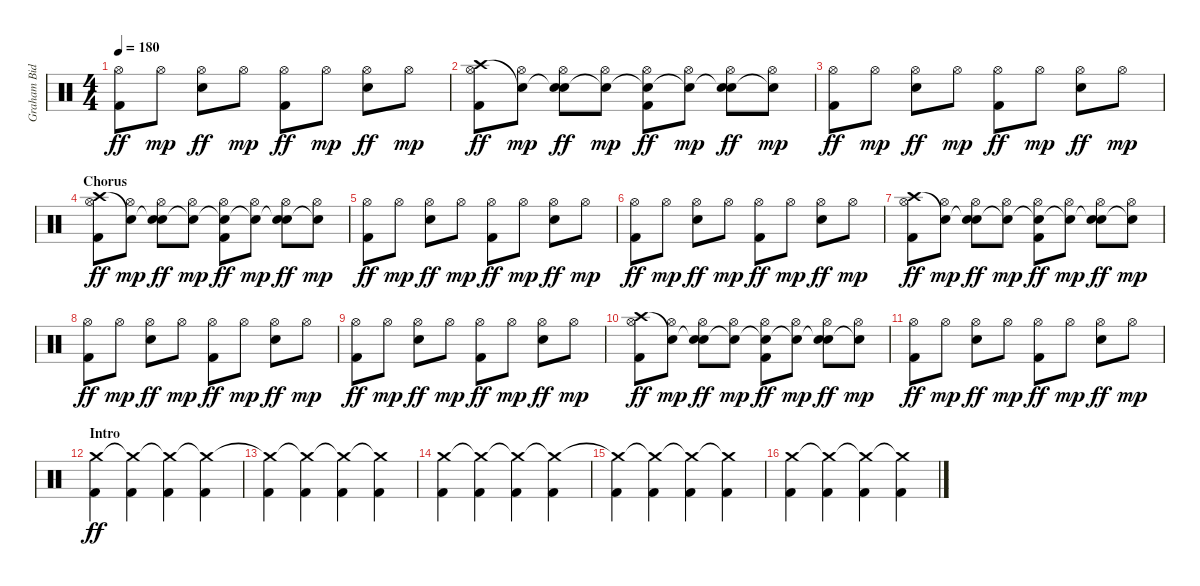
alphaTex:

\track ("Graham Bidstrup" "Graham Bid") {instrument percussion}
\staff {score}
\articulation defaults
\ts (4 4)
\tempo 180
\clef neutral
\ks c
("Hi-Hat (open)" "Kick (hit) 2").8{dy ff} "Hi-Hat (open)".8{dy mp} ("Hi-Hat (open)" "Snare (hit) 2").8{dy ff} "Hi-Hat (open)".8{dy mp} ("Hi-Hat (open)" "Kick (hit) 2").8{dy ff} "Hi-Hat (open)".8{dy mp} ("Hi-Hat (open)" "Snare (hit) 2").8{dy ff} "Hi-Hat (open)".8{dy mp} |
("Crash high (hit)" "Hi-Hat (open)" "Kick (hit) 2").8{dy ff} ("Snare (hit)"{t} "Hi-Hat (open)").8{dy mp} ("Snare (hit)"{t} "Hi-Hat (open)" "Snare (hit) 2").8{dy ff} ("Snare (hit)"{t} "Hi-Hat (open)").8{dy mp} ("Snare (hit)"{t} "Hi-Hat (open)" "Kick (hit) 2").8{dy ff} ("Snare (hit)"{t} "Hi-Hat (open)").8{dy mp} ("Snare (hit)"{t} "Hi-Hat (open)" "Snare (hit) 2").8{dy ff} ("Snare (hit)"{t} "Hi-Hat (open)").8{dy mp} |
("Hi-Hat (open)" "Kick (hit) 2").8{dy ff} "Hi-Hat (open)".8{dy mp} ("Hi-Hat (open)" "Snare (hit) 2").8{dy ff} "Hi-Hat (open)".8{dy mp} ("Hi-Hat (open)" "Kick (hit) 2").8{dy ff} "Hi-Hat (open)".8{dy mp} ("Hi-Hat (open)" "Snare (hit) 2").8{dy ff} "Hi-Hat (open)".8{dy mp} |
\section ("" "Chorus")
("Crash high (hit)" "Hi-Hat (open)" "Kick (hit) 2").8{dy ff} ("Snare (hit)"{t} "Hi-Hat (open)").8{dy mp} ("Snare (hit)"{t} "Hi-Hat (open)" "Snare (hit) 2").8{dy ff} ("Snare (hit)"{t} "Hi-Hat (open)").8{dy mp} ("Snare (hit)"{t} "Hi-Hat (open)" "Kick (hit) 2").8{dy ff} ("Snare (hit)"{t} "Hi-Hat (open)").8{dy mp} ("Snare (hit)"{t} "Hi-Hat (open)" "Snare (hit) 2").8{dy ff} ("Snare (hit)"{t} "Hi-Hat (open)").8{dy mp} |
("Hi-Hat (open)" "Kick (hit) 2").8{dy ff} "Hi-Hat (open)".8{dy mp} ("Hi-Hat (open)" "Snare (hit) 2").8{dy ff} "Hi-Hat (open)".8{dy mp} ("Hi-Hat (open)" "Kick (hit) 2").8{dy ff} "Hi-Hat (open)".8{dy mp} ("Hi-Hat (open)" "Snare (hit) 2").8{dy ff} "Hi-Hat (open)".8{dy mp} |
("Hi-Hat (open)" "Kick (hit) 2").8{dy ff} "Hi-Hat (open)".8{dy mp} ("Hi-Hat (open)" "Snare (hit) 2").8{dy ff} "Hi-Hat (open)".8{dy mp} ("Hi-Hat (open)" "Kick (hit) 2").8{dy ff} "Hi-Hat (open)".8{dy mp} ("Hi-Hat (open)" "Snare (hit) 2").8{dy ff} "Hi-Hat (open)".8{dy mp} |
("Crash high (hit)" "Hi-Hat (open)" "Kick (hit) 2").8{dy ff} ("Snare (hit)"{t} "Hi-Hat (open)").8{dy mp} ("Snare (hit)"{t} "Hi-Hat (open)" "Snare (hit) 2").8{dy ff} ("Snare (hit)"{t} "Hi-Hat (open)").8{dy mp} ("Snare (hit)"{t} "Hi-Hat (open)" "Kick (hit) 2").8{dy ff} ("Snare (hit)"{t} "Hi-Hat (open)").8{dy mp} ("Snare (hit)"{t} "Hi-Hat (open)" "Snare (hit) 2").8{dy ff} ("Snare (hit)"{t} "Hi-Hat (open)").8{dy mp} |
("Hi-Hat (open)" "Kick (hit) 2").8{dy ff} "Hi-Hat (open)".8{dy mp} ("Hi-Hat (open)" "Snare (hit) 2").8{dy ff} "Hi-Hat (open)".8{dy mp} ("Hi-Hat (open)" "Kick (hit) 2").8{dy ff} "Hi-Hat (open)".8{dy mp} ("Hi-Hat (open)" "Snare (hit) 2").8{dy ff} "Hi-Hat (open)".8{dy mp} |
("Hi-Hat (open)" "Kick (hit) 2").8{dy ff} "Hi-Hat (open)".8{dy mp} ("Hi-Hat (open)" "Snare (hit) 2").8{dy ff} "Hi-Hat (open)".8{dy mp} ("Hi-Hat (open)" "Kick (hit) 2").8{dy ff} "Hi-Hat (open)".8{dy mp} ("Hi-Hat (open)" "Snare (hit) 2").8{dy ff} "Hi-Hat (open)".8{dy mp} |
("Crash high (hit)" "Hi-Hat (open)" "Kick (hit) 2").8{dy ff} ("Snare (hit)"{t} "Hi-Hat (open)").8{dy mp} ("Snare (hit)"{t} "Hi-Hat (open)" "Snare (hit) 2").8{dy ff} ("Snare (hit)"{t} "Hi-Hat (open)").8{dy mp} ("Snare (hit)"{t} "Hi-Hat (open)" "Kick (hit) 2").8{dy ff} ("Snare (hit)"{t} "Hi-Hat (open)").8{dy mp} ("Snare (hit)"{t} "Hi-Hat (open)" "Snare (hit) 2").8{dy ff} ("Snare (hit)"{t} "Hi-Hat (open)").8{dy mp} |
("Hi-Hat (open)" "Kick (hit) 2").8{dy ff} "Hi-Hat (open)".8{dy mp} ("Hi-Hat (open)" "Snare (hit) 2").8{dy ff} "Hi-Hat (open)".8{dy mp} ("Hi-Hat (open)" "Kick (hit) 2").8{dy ff} "Hi-Hat (open)".8{dy mp} ("Hi-Hat (open)" "Snare (hit) 2").8{dy ff} "Hi-Hat (open)".8{dy mp} |
\section ("" "Intro")
("Crash medium (hit)" "Kick (hit) 2").4{dy ff} ("Crash medium (hit)"{t} "Kick (hit) 2").4 ("Crash medium (hit)"{t} "Kick (hit) 2").4 ("Crash medium (hit)"{t} "Kick (hit) 2").4 |
("Crash medium (hit)"{t} "Kick (hit) 2").4 ("Crash medium (hit)"{t} "Kick (hit) 2").4 ("Crash medium (hit)"{t} "Kick (hit) 2").4 ("Crash medium (hit)"{t} "Kick (hit) 2").4 |
("Crash medium (hit)" "Kick (hit) 2").4 ("Crash medium (hit)"{t} "Kick (hit) 2").4 ("Crash medium (hit)"{t} "Kick (hit) 2").4 ("Crash medium (hit)"{t} "Kick (hit) 2").4 |
("Crash medium (hit)"{t} "Kick (hit) 2").4 ("Crash medium (hit)"{t} "Kick (hit) 2").4 ("Crash medium (hit)"{t} "Kick (hit) 2").4 ("Crash medium (hit)"{t} "Kick (hit) 2").4 |
("Crash medium (hit)" "Kick (hit) 2").4 ("Crash medium (hit)"{t} "Kick (hit) 2").4 ("Crash medium (hit)"{t} "Kick (hit) 2").4 ("Crash medium (hit)"{t} "Kick (hit) 2").4
